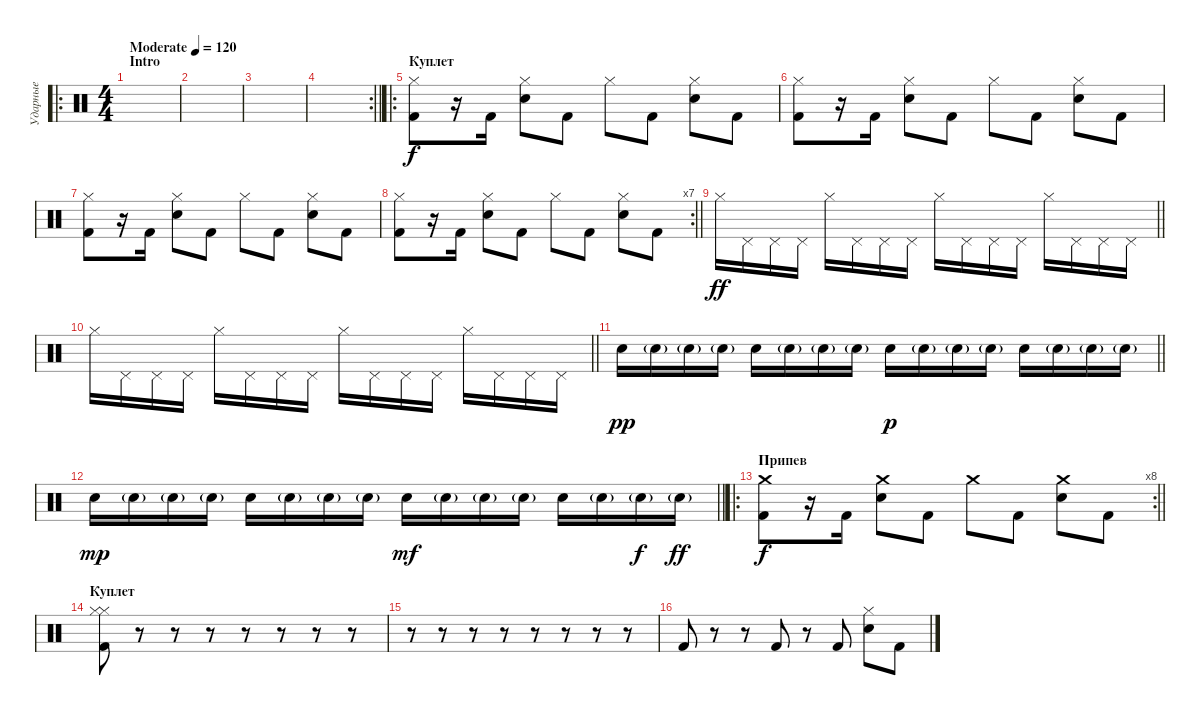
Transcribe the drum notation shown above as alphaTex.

\track ("Ударные" "Ударные") {instrument percussion}
\staff {score}
\articulation defaults
\ro
\ts (4 4)
\section ("" "Intro")
\tempo (120 "Moderate")
\clef neutral
\ks c
|
|
|
\rc 2
\barLineRight lightlight
|
\ro
\section ("" "Куплет")
("Kick (hit) 2" "Hi-Hat (closed)").8 r.16 "Kick (hit) 2".16 ("Electric Snare (hit)" "Hi-Hat (closed)").8 "Kick (hit) 2".8 "Hi-Hat (closed)".8 "Kick (hit) 2".8 ("Electric Snare (hit)" "Hi-Hat (closed)").8 "Kick (hit) 2".8 |
("Kick (hit) 2" "Hi-Hat (closed)").8 r.16 "Kick (hit) 2".16 ("Electric Snare (hit)" "Hi-Hat (closed)").8 "Kick (hit) 2".8 "Hi-Hat (closed)".8 "Kick (hit) 2".8 ("Electric Snare (hit)" "Hi-Hat (closed)").8 "Kick (hit) 2".8 |
("Kick (hit) 2" "Hi-Hat (closed)").8 r.16 "Kick (hit) 2".16 ("Electric Snare (hit)" "Hi-Hat (closed)").8 "Kick (hit) 2".8 "Hi-Hat (closed)".8 "Kick (hit) 2".8 ("Electric Snare (hit)" "Hi-Hat (closed)").8 "Kick (hit) 2".8 |
\rc 7
\barLineRight lightlight
("Kick (hit) 2" "Hi-Hat (closed)").8 r.16 "Kick (hit) 2".16 ("Electric Snare (hit)" "Hi-Hat (closed)").8 "Kick (hit) 2".8 "Hi-Hat (closed)".8 "Kick (hit) 2".8 ("Electric Snare (hit)" "Hi-Hat (closed)").8 "Kick (hit) 2".8 |
\barLineRight lightlight "Hi-Hat (closed)".16{dy ff} "Pedal Hi-Hat (hit)".16 "Pedal Hi-Hat (hit)".16 "Pedal Hi-Hat (hit)".16 "Hi-Hat (closed)".16 "Pedal Hi-Hat (hit)".16 "Pedal Hi-Hat (hit)".16 "Pedal Hi-Hat (hit)".16 "Hi-Hat (closed)".16 "Pedal Hi-Hat (hit)".16 "Pedal Hi-Hat (hit)".16 "Pedal Hi-Hat (hit)".16 "Hi-Hat (closed)".16 "Pedal Hi-Hat (hit)".16 "Pedal Hi-Hat (hit)".16 "Pedal Hi-Hat (hit)".16
|
\barLineRight lightlight "Hi-Hat (closed)".16 "Pedal Hi-Hat (hit)".16 "Pedal Hi-Hat (hit)".16 "Pedal Hi-Hat (hit)".16 "Hi-Hat (closed)".16 "Pedal Hi-Hat (hit)".16 "Pedal Hi-Hat (hit)".16 "Pedal Hi-Hat (hit)".16 "Hi-Hat (closed)".16 "Pedal Hi-Hat (hit)".16 "Pedal Hi-Hat (hit)".16 "Pedal Hi-Hat (hit)".16 "Hi-Hat (closed)".16 "Pedal Hi-Hat (hit)".16 "Pedal Hi-Hat (hit)".16 "Pedal Hi-Hat (hit)".16
|
\barLineRight lightlight "Electric Snare (hit)".16{dy pp} "Electric Snare (hit)"{g}.16 "Electric Snare (hit)"{g}.16 "Electric Snare (hit)"{g}.16 "Electric Snare (hit)".16 "Electric Snare (hit)"{g}.16 "Electric Snare (hit)"{g}.16 "Electric Snare (hit)"{g}.16 "Electric Snare (hit)".16{dy p} "Electric Snare (hit)"{g}.16 "Electric Snare (hit)"{g}.16 "Electric Snare (hit)"{g}.16 "Electric Snare (hit)".16 "Electric Snare (hit)"{g}.16 "Electric Snare (hit)"{g}.16 "Electric Snare (hit)"{g}.16
|
\barLineRight lightlight "Electric Snare (hit)".16{dy mp} "Electric Snare (hit)"{g}.16 "Electric Snare (hit)"{g}.16 "Electric Snare (hit)"{g}.16 "Electric Snare (hit)".16 "Electric Snare (hit)"{g}.16 "Electric Snare (hit)"{g}.16 "Electric Snare (hit)"{g}.16 "Electric Snare (hit)".16{dy mf} "Electric Snare (hit)"{g}.16 "Electric Snare (hit)"{g}.16 "Electric Snare (hit)"{g}.16 "Electric Snare (hit)".16 "Electric Snare (hit)"{g}.16 "Electric Snare (hit)"{g}.16{dy f} "Electric Snare (hit)"{g}.16{dy ff}
|
\ro
\rc 8
\section ("" "Припев")
\barLineRight lightlight
("Kick (hit) 2" "Crash medium (hit)").8{dy f} r.16 "Kick (hit) 2".16 ("Electric Snare (hit)" "Crash medium (hit)").8 "Kick (hit) 2".8 "Crash medium (hit)".8 "Kick (hit) 2".8 ("Electric Snare (hit)" "Crash medium (hit)").8 "Kick (hit) 2".8 |
\section ("" "Куплет")
("Hi-Hat (closed)" "Hi-Hat (closed)" "Kick (hit) 2").8 r.8 r.8 r.8 r.8 r.8 r.8 r.8 |
r.8 r.8 r.8 r.8 r.8 r.8 r.8 r.8 |
"Kick (hit) 2".8 r.8 r.8 "Kick (hit) 2".8 r.8 "Kick (hit) 2".8 ("Hi-Hat (closed)" "Electric Snare (hit)").8 "Kick (hit) 2".8
